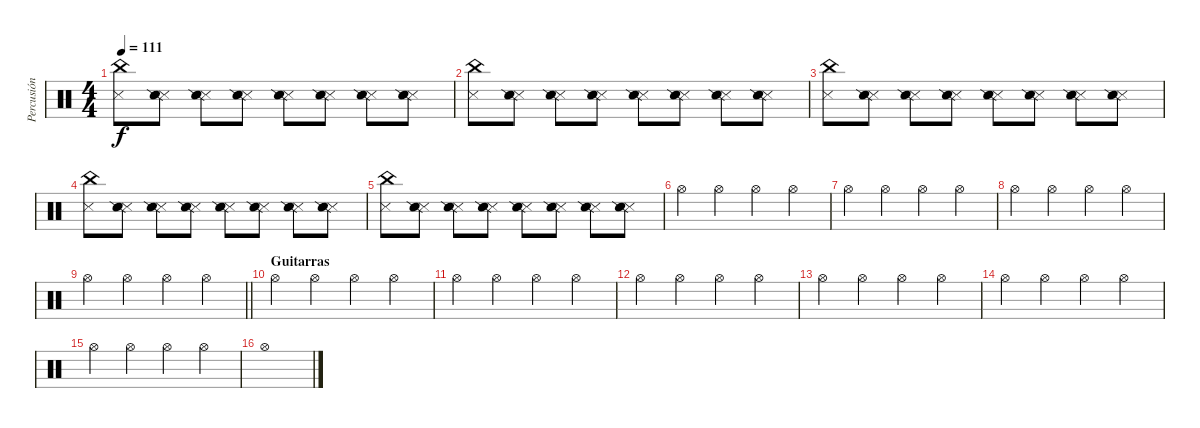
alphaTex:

\track ("Percusión" "Percusión") {instrument percussion}
\staff {score}
\articulation defaults
\ts (4 4)
\tempo 111
\clef neutral
\ks c
("Snare (side stick) 3" "China (hit)").8{dy f} ("Snare (side stick) 3" "Snare (side stick) 2").8 ("Snare (side stick) 3" "Snare (side stick) 2").8 ("Snare (side stick) 3" "Snare (side stick) 2").8 ("Snare (side stick) 3" "Snare (side stick) 2").8 ("Snare (side stick) 3" "Snare (side stick) 2").8 ("Snare (side stick) 3" "Snare (side stick) 2").8 ("Snare (side stick) 3" "Snare (side stick) 2").8 |
("Snare (side stick) 3" "China (hit)").8 ("Snare (side stick) 3" "Snare (side stick) 2").8 ("Snare (side stick) 3" "Snare (side stick) 2").8 ("Snare (side stick) 3" "Snare (side stick) 2").8 ("Snare (side stick) 3" "Snare (side stick) 2").8 ("Snare (side stick) 3" "Snare (side stick) 2").8 ("Snare (side stick) 3" "Snare (side stick) 2").8 ("Snare (side stick) 3" "Snare (side stick) 2").8 |
("Snare (side stick) 3" "China (hit)").8 ("Snare (side stick) 3" "Snare (side stick) 2").8 ("Snare (side stick) 3" "Snare (side stick) 2").8 ("Snare (side stick) 3" "Snare (side stick) 2").8 ("Snare (side stick) 3" "Snare (side stick) 2").8 ("Snare (side stick) 3" "Snare (side stick) 2").8 ("Snare (side stick) 3" "Snare (side stick) 2").8 ("Snare (side stick) 3" "Snare (side stick) 2").8 |
("Snare (side stick) 3" "China (hit)").8 ("Snare (side stick) 3" "Snare (side stick) 2").8 ("Snare (side stick) 3" "Snare (side stick) 2").8 ("Snare (side stick) 3" "Snare (side stick) 2").8 ("Snare (side stick) 3" "Snare (side stick) 2").8 ("Snare (side stick) 3" "Snare (side stick) 2").8 ("Snare (side stick) 3" "Snare (side stick) 2").8 ("Snare (side stick) 3" "Snare (side stick) 2").8 |
("Snare (side stick) 3" "China (hit)").8 ("Snare (side stick) 3" "Snare (side stick) 2").8 ("Snare (side stick) 3" "Snare (side stick) 2").8 ("Snare (side stick) 3" "Snare (side stick) 2").8 ("Snare (side stick) 3" "Snare (side stick) 2").8 ("Snare (side stick) 3" "Snare (side stick) 2").8 ("Snare (side stick) 3" "Snare (side stick) 2").8 ("Snare (side stick) 3" "Snare (side stick) 2").8 |
"Hi-Hat (open)".4 "Hi-Hat (open)".4 "Hi-Hat (open)".4 "Hi-Hat (open)".4 |
"Hi-Hat (open)".4 "Hi-Hat (open)".4 "Hi-Hat (open)".4 "Hi-Hat (open)".4 |
"Hi-Hat (open)".4 "Hi-Hat (open)".4 "Hi-Hat (open)".4 "Hi-Hat (open)".4 |
\barLineRight lightlight "Hi-Hat (open)".4 "Hi-Hat (open)".4 "Hi-Hat (open)".4 "Hi-Hat (open)".4
|
\section ("" "Guitarras")
"Hi-Hat (open)".4 "Hi-Hat (open)".4 "Hi-Hat (open)".4 "Hi-Hat (open)".4 |
"Hi-Hat (open)".4 "Hi-Hat (open)".4 "Hi-Hat (open)".4 "Hi-Hat (open)".4 |
"Hi-Hat (open)".4 "Hi-Hat (open)".4 "Hi-Hat (open)".4 "Hi-Hat (open)".4 |
"Hi-Hat (open)".4 "Hi-Hat (open)".4 "Hi-Hat (open)".4 "Hi-Hat (open)".4 |
"Hi-Hat (open)".4 "Hi-Hat (open)".4 "Hi-Hat (open)".4 "Hi-Hat (open)".4 |
"Hi-Hat (open)".4 "Hi-Hat (open)".4 "Hi-Hat (open)".4 "Hi-Hat (open)".4 |
"Hi-Hat (open)".1{volume 4}
